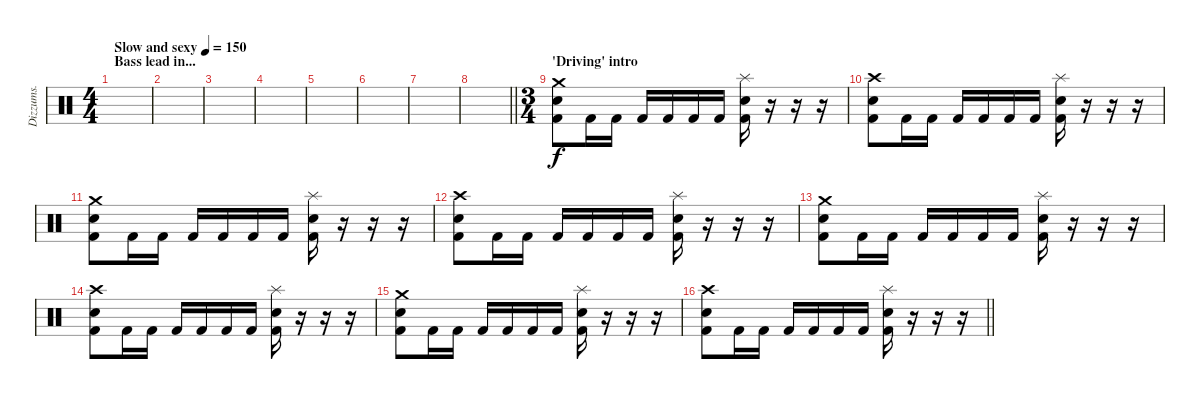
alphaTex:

\track ("Dizzums." "Dizzums.") {instrument percussion}
\staff {score}
\articulation defaults
\ts (4 4)
\section ("" "Bass lead in...")
\tempo (150 "Slow and sexy")
\clef neutral
\ks c
|
|
|
|
|
|
|
\barLineRight lightlight
|
\ts (3 4)
\section ("" "'Driving' intro")
("Crash medium (hit)" "Electric Snare (hit)" "Kick (hit) 2").8 "Kick (hit) 2".16 "Kick (hit) 2".16 "Kick (hit) 2".16 "Kick (hit) 2".16 "Kick (hit) 2".16 "Kick (hit) 2".16 ("Splash (hit)" "Electric Snare (hit)" "Kick (hit) 2").16 r.16 r.16 r.16 |
("Crash high (hit)" "Electric Snare (hit)" "Kick (hit) 2").8 "Kick (hit) 2".16 "Kick (hit) 2".16 "Kick (hit) 2".16 "Kick (hit) 2".16 "Kick (hit) 2".16 "Kick (hit) 2".16 ("Splash (hit)" "Electric Snare (hit)" "Kick (hit) 2").16 r.16 r.16 r.16 |
("Crash medium (hit)" "Electric Snare (hit)" "Kick (hit) 2").8 "Kick (hit) 2".16 "Kick (hit) 2".16 "Kick (hit) 2".16 "Kick (hit) 2".16 "Kick (hit) 2".16 "Kick (hit) 2".16 ("Splash (hit)" "Electric Snare (hit)" "Kick (hit) 2").16 r.16 r.16 r.16 |
("Crash high (hit)" "Electric Snare (hit)" "Kick (hit) 2").8 "Kick (hit) 2".16 "Kick (hit) 2".16 "Kick (hit) 2".16 "Kick (hit) 2".16 "Kick (hit) 2".16 "Kick (hit) 2".16 ("Splash (hit)" "Electric Snare (hit)" "Kick (hit) 2").16 r.16 r.16 r.16 |
("Crash medium (hit)" "Electric Snare (hit)" "Kick (hit) 2").8 "Kick (hit) 2".16 "Kick (hit) 2".16 "Kick (hit) 2".16 "Kick (hit) 2".16 "Kick (hit) 2".16 "Kick (hit) 2".16 ("Splash (hit)" "Electric Snare (hit)" "Kick (hit) 2").16 r.16 r.16 r.16 |
("Crash high (hit)" "Electric Snare (hit)" "Kick (hit) 2").8 "Kick (hit) 2".16 "Kick (hit) 2".16 "Kick (hit) 2".16 "Kick (hit) 2".16 "Kick (hit) 2".16 "Kick (hit) 2".16 ("Splash (hit)" "Electric Snare (hit)" "Kick (hit) 2").16 r.16 r.16 r.16 |
("Crash medium (hit)" "Electric Snare (hit)" "Kick (hit) 2").8 "Kick (hit) 2".16 "Kick (hit) 2".16 "Kick (hit) 2".16 "Kick (hit) 2".16 "Kick (hit) 2".16 "Kick (hit) 2".16 ("Splash (hit)" "Electric Snare (hit)" "Kick (hit) 2").16 r.16 r.16 r.16 |
\barLineRight lightlight
("Crash high (hit)" "Electric Snare (hit)" "Kick (hit) 2").8 "Kick (hit) 2".16 "Kick (hit) 2".16 "Kick (hit) 2".16 "Kick (hit) 2".16 "Kick (hit) 2".16 "Kick (hit) 2".16 ("Splash (hit)" "Electric Snare (hit)" "Kick (hit) 2").16 r.16 r.16 r.16
